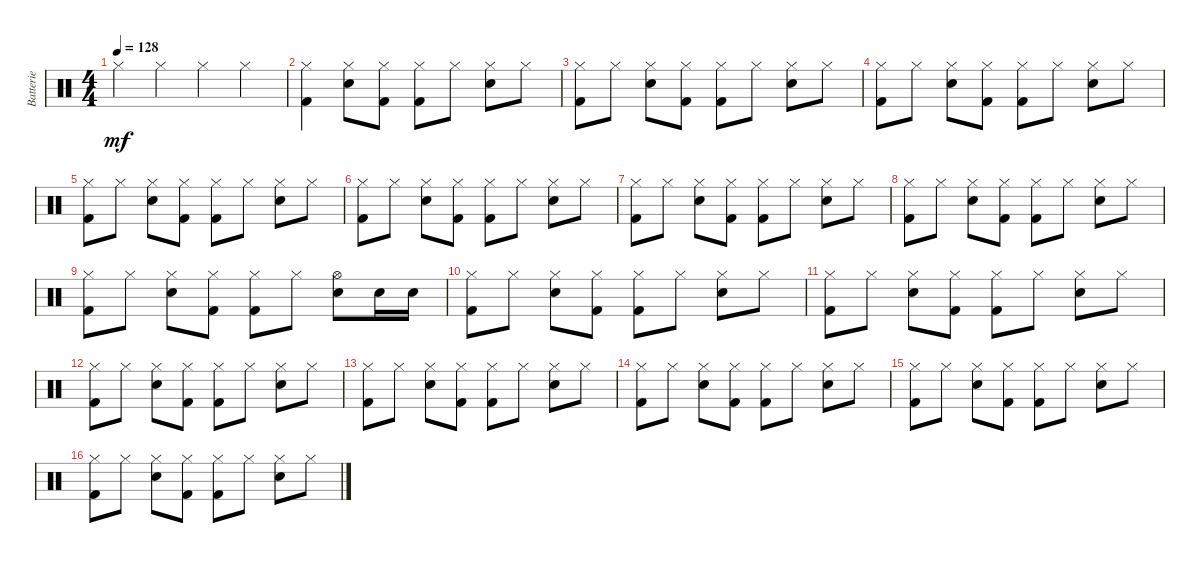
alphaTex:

\track ("Batterie" "Batterie") {instrument percussion}
\staff {score}
\articulation defaults
\ts (4 4)
\tempo 128
\clef neutral
\ks c "Hi-Hat (closed)".4{dy mf} "Hi-Hat (closed)".4 "Hi-Hat (closed)".4 "Hi-Hat (closed)".4
|
("Hi-Hat (closed)" "Kick (hit) 2").4 ("Hi-Hat (closed)" "Snare (hit) 2").8 ("Hi-Hat (closed)" "Kick (hit) 2").8 ("Hi-Hat (closed)" "Kick (hit) 2").8 "Hi-Hat (closed)".8 ("Hi-Hat (closed)" "Snare (hit) 2").8 "Hi-Hat (closed)".8 |
("Hi-Hat (closed)" "Kick (hit) 2").8 "Hi-Hat (closed)".8 ("Hi-Hat (closed)" "Snare (hit) 2").8 ("Hi-Hat (closed)" "Kick (hit) 2").8 ("Hi-Hat (closed)" "Kick (hit) 2").8 "Hi-Hat (closed)".8 ("Hi-Hat (closed)" "Snare (hit) 2").8 "Hi-Hat (closed)".8 |
("Hi-Hat (closed)" "Kick (hit) 2").8 "Hi-Hat (closed)".8 ("Hi-Hat (closed)" "Snare (hit) 2").8 ("Hi-Hat (closed)" "Kick (hit) 2").8 ("Hi-Hat (closed)" "Kick (hit) 2").8 "Hi-Hat (closed)".8 ("Hi-Hat (closed)" "Snare (hit) 2").8 "Hi-Hat (closed)".8 |
("Hi-Hat (closed)" "Kick (hit) 2").8 "Hi-Hat (closed)".8 ("Hi-Hat (closed)" "Snare (hit) 2").8 ("Hi-Hat (closed)" "Kick (hit) 2").8 ("Hi-Hat (closed)" "Kick (hit) 2").8 "Hi-Hat (closed)".8 ("Hi-Hat (closed)" "Snare (hit) 2").8 "Hi-Hat (closed)".8 |
("Hi-Hat (closed)" "Kick (hit) 2").8 "Hi-Hat (closed)".8 ("Hi-Hat (closed)" "Snare (hit) 2").8 ("Hi-Hat (closed)" "Kick (hit) 2").8 ("Hi-Hat (closed)" "Kick (hit) 2").8 "Hi-Hat (closed)".8 ("Hi-Hat (closed)" "Snare (hit) 2").8 "Hi-Hat (closed)".8 |
("Hi-Hat (closed)" "Kick (hit) 2").8 "Hi-Hat (closed)".8 ("Hi-Hat (closed)" "Snare (hit) 2").8 ("Hi-Hat (closed)" "Kick (hit) 2").8 ("Hi-Hat (closed)" "Kick (hit) 2").8 "Hi-Hat (closed)".8 ("Hi-Hat (closed)" "Snare (hit) 2").8 "Hi-Hat (closed)".8 |
("Hi-Hat (closed)" "Kick (hit) 2").8 "Hi-Hat (closed)".8 ("Hi-Hat (closed)" "Snare (hit) 2").8 ("Hi-Hat (closed)" "Kick (hit) 2").8 ("Hi-Hat (closed)" "Kick (hit) 2").8 "Hi-Hat (closed)".8 ("Hi-Hat (closed)" "Snare (hit) 2").8 "Hi-Hat (closed)".8 |
("Hi-Hat (closed)" "Kick (hit) 2").8 "Hi-Hat (closed)".8 ("Hi-Hat (closed)" "Snare (hit) 2").8 ("Hi-Hat (closed)" "Kick (hit) 2").8 ("Hi-Hat (closed)" "Kick (hit) 2").8 "Hi-Hat (closed)".8 ("Hi-Hat (open)" "Snare (hit) 2").8 "Snare (hit) 2".16 "Snare (hit) 2".16 |
("Hi-Hat (closed)" "Kick (hit) 2").8 "Hi-Hat (closed)".8 ("Hi-Hat (closed)" "Snare (hit) 2").8 ("Hi-Hat (closed)" "Kick (hit) 2").8 ("Hi-Hat (closed)" "Kick (hit) 2").8 "Hi-Hat (closed)".8 ("Hi-Hat (closed)" "Snare (hit) 2").8 "Hi-Hat (closed)".8 |
("Hi-Hat (closed)" "Kick (hit) 2").8 "Hi-Hat (closed)".8 ("Hi-Hat (closed)" "Snare (hit) 2").8 ("Hi-Hat (closed)" "Kick (hit) 2").8 ("Hi-Hat (closed)" "Kick (hit) 2").8 "Hi-Hat (closed)".8 ("Hi-Hat (closed)" "Snare (hit) 2").8 "Hi-Hat (closed)".8 |
("Hi-Hat (closed)" "Kick (hit) 2").8 "Hi-Hat (closed)".8 ("Hi-Hat (closed)" "Snare (hit) 2").8 ("Hi-Hat (closed)" "Kick (hit) 2").8 ("Hi-Hat (closed)" "Kick (hit) 2").8 "Hi-Hat (closed)".8 ("Hi-Hat (closed)" "Snare (hit) 2").8 "Hi-Hat (closed)".8 |
("Hi-Hat (closed)" "Kick (hit) 2").8 "Hi-Hat (closed)".8 ("Hi-Hat (closed)" "Snare (hit) 2").8 ("Hi-Hat (closed)" "Kick (hit) 2").8 ("Hi-Hat (closed)" "Kick (hit) 2").8 "Hi-Hat (closed)".8 ("Hi-Hat (closed)" "Snare (hit) 2").8 "Hi-Hat (closed)".8 |
("Hi-Hat (closed)" "Kick (hit) 2").8 "Hi-Hat (closed)".8 ("Hi-Hat (closed)" "Snare (hit) 2").8 ("Hi-Hat (closed)" "Kick (hit) 2").8 ("Hi-Hat (closed)" "Kick (hit) 2").8 "Hi-Hat (closed)".8 ("Hi-Hat (closed)" "Snare (hit) 2").8 "Hi-Hat (closed)".8 |
("Hi-Hat (closed)" "Kick (hit) 2").8 "Hi-Hat (closed)".8 ("Hi-Hat (closed)" "Snare (hit) 2").8 ("Hi-Hat (closed)" "Kick (hit) 2").8 ("Hi-Hat (closed)" "Kick (hit) 2").8 "Hi-Hat (closed)".8 ("Hi-Hat (closed)" "Snare (hit) 2").8 "Hi-Hat (closed)".8 |
("Hi-Hat (closed)" "Kick (hit) 2").8 "Hi-Hat (closed)".8 ("Hi-Hat (closed)" "Snare (hit) 2").8 ("Hi-Hat (closed)" "Kick (hit) 2").8 ("Hi-Hat (closed)" "Kick (hit) 2").8 "Hi-Hat (closed)".8 ("Hi-Hat (closed)" "Snare (hit) 2").8 "Hi-Hat (closed)".8
